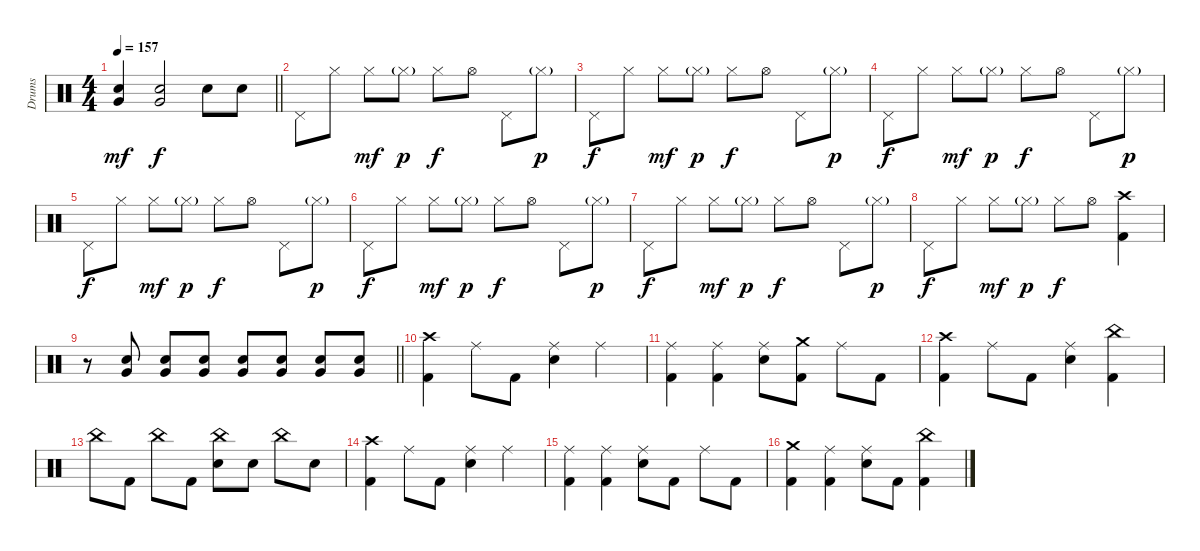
\track ("Drums" "Drums") {instrument percussion}
\staff {score}
\articulation defaults
\ts (4 4)
\tempo 157
\clef neutral
\barLineRight lightlight
\ks c
("Electric Snare (hit)" "Very Low Tom (hit)").4{dy mf} ("Electric Snare (hit)" "Very Low Tom (hit)").2{dy f} "Electric Snare (hit)".8 "Electric Snare (hit)".8 |
\section ("" "")
"Pedal Hi-Hat (hit)".8{volume 5} "Hi-Hat (closed)".8 "Hi-Hat (closed)".8{dy mf} "Hi-Hat (closed)"{g}.8{dy p} "Hi-Hat (closed)".8{dy f} "Hi-Hat (open)".8 "Pedal Hi-Hat (hit)".8 "Hi-Hat (closed)"{g}.8{dy p} |
"Pedal Hi-Hat (hit)".8{dy f} "Hi-Hat (closed)".8 "Hi-Hat (closed)".8{dy mf} "Hi-Hat (closed)"{g}.8{dy p} "Hi-Hat (closed)".8{dy f} "Hi-Hat (open)".8 "Pedal Hi-Hat (hit)".8 "Hi-Hat (closed)"{g}.8{dy p} |
"Pedal Hi-Hat (hit)".8{dy f} "Hi-Hat (closed)".8 "Hi-Hat (closed)".8{dy mf} "Hi-Hat (closed)"{g}.8{dy p} "Hi-Hat (closed)".8{dy f} "Hi-Hat (open)".8 "Pedal Hi-Hat (hit)".8 "Hi-Hat (closed)"{g}.8{dy p} |
"Pedal Hi-Hat (hit)".8{dy f} "Hi-Hat (closed)".8 "Hi-Hat (closed)".8{dy mf} "Hi-Hat (closed)"{g}.8{dy p} "Hi-Hat (closed)".8{dy f} "Hi-Hat (open)".8 "Pedal Hi-Hat (hit)".8 "Hi-Hat (closed)"{g}.8{dy p} |
"Pedal Hi-Hat (hit)".8{dy f} "Hi-Hat (closed)".8 "Hi-Hat (closed)".8{dy mf} "Hi-Hat (closed)"{g}.8{dy p} "Hi-Hat (closed)".8{dy f} "Hi-Hat (open)".8 "Pedal Hi-Hat (hit)".8 "Hi-Hat (closed)"{g}.8{dy p} |
"Pedal Hi-Hat (hit)".8{dy f} "Hi-Hat (closed)".8 "Hi-Hat (closed)".8{dy mf} "Hi-Hat (closed)"{g}.8{dy p} "Hi-Hat (closed)".8{dy f} "Hi-Hat (open)".8 "Pedal Hi-Hat (hit)".8 "Hi-Hat (closed)"{g}.8{dy p} |
"Pedal Hi-Hat (hit)".8{dy f} "Hi-Hat (closed)".8 "Hi-Hat (closed)".8{dy mf} "Hi-Hat (closed)"{g}.8{dy p} "Hi-Hat (closed)".8{dy f} "Hi-Hat (open)".8 ("Crash high (hit)" "Kick (hit) 2").4{volume 15} |
\barLineRight lightlight
r.8 ("Electric Snare (hit)" "Very Low Tom (hit)").8 ("Electric Snare (hit)" "Very Low Tom (hit)").8 ("Electric Snare (hit)" "Very Low Tom (hit)").8 ("Electric Snare (hit)" "Very Low Tom (hit)").8 ("Electric Snare (hit)" "Very Low Tom (hit)").8 ("Electric Snare (hit)" "Very Low Tom (hit)").8 ("Electric Snare (hit)" "Very Low Tom (hit)").8 |
\section ("" "")
("Crash high (hit)" "Kick (hit) 2").4 "Ride (middle)".8 "Kick (hit) 2".8 ("Ride (middle)" "Electric Snare (hit)").4 "Ride (middle)".4 |
("Ride (middle)" "Kick (hit) 2").4 ("Ride (middle)" "Kick (hit) 2").4 ("Ride (middle)" "Electric Snare (hit)").8 ("Crash medium (hit)" "Kick (hit) 2").8 "Ride (middle)".8 "Kick (hit) 2".8 |
("Crash high (hit)" "Kick (hit) 2").4 "Ride (middle)".8 "Kick (hit) 2".8 ("Ride (middle)" "Electric Snare (hit)").4 ("China (hit)" "Kick (hit) 2").4 |
"China (hit)".8 "Kick (hit) 2".8 "China (hit)".8 "Kick (hit) 2".8 ("China (hit)" "Electric Snare (hit)").8 "Electric Snare (hit)".8 "China (hit)".8 "Electric Snare (hit)".8 |
("Crash high (hit)" "Kick (hit) 2").4 "Ride (middle)".8 "Kick (hit) 2".8 ("Ride (middle)" "Electric Snare (hit)").4 "Ride (middle)".4 |
("Ride (middle)" "Kick (hit) 2").4 ("Ride (middle)" "Kick (hit) 2").4 ("Ride (middle)" "Electric Snare (hit)").8 "Kick (hit) 2".8 "Ride (middle)".8 "Kick (hit) 2".8 |
("Crash medium (hit)" "Kick (hit) 2").4 ("Ride (middle)" "Kick (hit) 2").4 ("Ride (middle)" "Electric Snare (hit)").8 "Kick (hit) 2".8 ("China (hit)" "Kick (hit) 2").4
